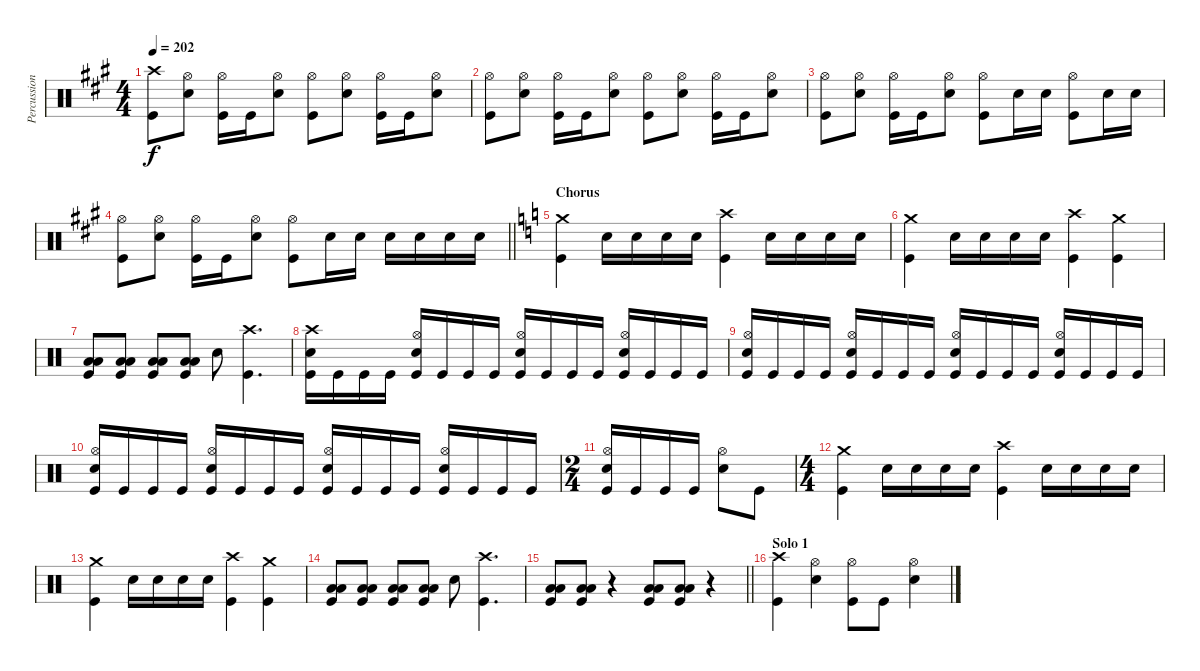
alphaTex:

\track ("Percussion" "Percussion") {instrument percussion}
\staff {score}
\articulation defaults
\ts (4 4)
\tempo 202
\clef neutral
\ks a
("Crash high (hit)" "Kick (hit)").8{dy f} ("Hi-Hat (open)" "Electric Snare (hit)").8 ("Hi-Hat (open)" "Kick (hit)").16 "Kick (hit)".16 ("Hi-Hat (open)" "Electric Snare (hit)").8 ("Hi-Hat (open)" "Kick (hit)").8 ("Hi-Hat (open)" "Electric Snare (hit)").8 ("Hi-Hat (open)" "Kick (hit)").16 "Kick (hit)".16 ("Hi-Hat (open)" "Electric Snare (hit)").8 |
("Hi-Hat (open)" "Kick (hit)").8 ("Hi-Hat (open)" "Electric Snare (hit)").8 ("Hi-Hat (open)" "Kick (hit)").16 "Kick (hit)".16 ("Hi-Hat (open)" "Electric Snare (hit)").8 ("Hi-Hat (open)" "Kick (hit)").8 ("Hi-Hat (open)" "Electric Snare (hit)").8 ("Hi-Hat (open)" "Kick (hit)").16 "Kick (hit)".16 ("Hi-Hat (open)" "Electric Snare (hit)").8 |
("Hi-Hat (open)" "Kick (hit)").8 ("Hi-Hat (open)" "Electric Snare (hit)").8 ("Hi-Hat (open)" "Kick (hit)").16 "Kick (hit)".16 ("Hi-Hat (open)" "Electric Snare (hit)").8 ("Hi-Hat (open)" "Kick (hit)").8 "Electric Snare (hit)".16 "Electric Snare (hit)".16 ("Hi-Hat (open)" "Kick (hit)").8 "Electric Snare (hit)".16 "Electric Snare (hit)".16 |
\barLineRight lightlight
("Hi-Hat (open)" "Kick (hit)").8 ("Hi-Hat (open)" "Electric Snare (hit)").8 ("Hi-Hat (open)" "Kick (hit)").16 "Kick (hit)".16 ("Hi-Hat (open)" "Electric Snare (hit)").8 ("Hi-Hat (open)" "Kick (hit)").8 "Electric Snare (hit)".16 "Electric Snare (hit)".16 "Electric Snare (hit)".16 "Electric Snare (hit)".16 "Electric Snare (hit)".16 "Electric Snare (hit)".16 |
\section ("" "Chorus")
\ks c
("Crash medium (hit)" "Kick (hit)").4 "Electric Snare (hit)".16 "Electric Snare (hit)".16 "Electric Snare (hit)".16 "Electric Snare (hit)".16 ("Crash high (hit)" "Kick (hit)").4 "Electric Snare (hit)".16 "Electric Snare (hit)".16 "Electric Snare (hit)".16 "Electric Snare (hit)".16 |
("Crash medium (hit)" "Kick (hit)").4 "Electric Snare (hit)".16 "Electric Snare (hit)".16 "Electric Snare (hit)".16 "Electric Snare (hit)".16 ("Crash high (hit)" "Kick (hit)").4 ("Crash medium (hit)" "Kick (hit)").4 |
("Low Tom (hit)" "Low Floor Tom (hit)" "Kick (hit)").8 ("Low Tom (hit)" "Low Floor Tom (hit)" "Kick (hit)").8 ("Low Tom (hit)" "Low Floor Tom (hit)" "Kick (hit)").8 ("Low Tom (hit)" "Low Floor Tom (hit)" "Kick (hit)").8 "Electric Snare (hit)".8 ("Crash high (hit)" "Kick (hit)").4{d} |
("Crash high (hit)" "Electric Snare (hit)" "Kick (hit)").16 "Kick (hit)".16 "Kick (hit)".16 "Kick (hit)".16 ("Hi-Hat (open)" "Electric Snare (hit)" "Kick (hit)").16 "Kick (hit)".16 "Kick (hit)".16 "Kick (hit)".16 ("Hi-Hat (open)" "Electric Snare (hit)" "Kick (hit)").16 "Kick (hit)".16 "Kick (hit)".16 "Kick (hit)".16 ("Hi-Hat (open)" "Electric Snare (hit)" "Kick (hit)").16 "Kick (hit)".16 "Kick (hit)".16 "Kick (hit)".16 |
("Hi-Hat (open)" "Electric Snare (hit)" "Kick (hit)").16 "Kick (hit)".16 "Kick (hit)".16 "Kick (hit)".16 ("Hi-Hat (open)" "Electric Snare (hit)" "Kick (hit)").16 "Kick (hit)".16 "Kick (hit)".16 "Kick (hit)".16 ("Hi-Hat (open)" "Electric Snare (hit)" "Kick (hit)").16 "Kick (hit)".16 "Kick (hit)".16 "Kick (hit)".16 ("Hi-Hat (open)" "Electric Snare (hit)" "Kick (hit)").16 "Kick (hit)".16 "Kick (hit)".16 "Kick (hit)".16 |
("Hi-Hat (open)" "Electric Snare (hit)" "Kick (hit)").16 "Kick (hit)".16 "Kick (hit)".16 "Kick (hit)".16 ("Hi-Hat (open)" "Electric Snare (hit)" "Kick (hit)").16 "Kick (hit)".16 "Kick (hit)".16 "Kick (hit)".16 ("Hi-Hat (open)" "Electric Snare (hit)" "Kick (hit)").16 "Kick (hit)".16 "Kick (hit)".16 "Kick (hit)".16 ("Hi-Hat (open)" "Electric Snare (hit)" "Kick (hit)").16 "Kick (hit)".16 "Kick (hit)".16 "Kick (hit)".16 |
\ts (2 4)
("Hi-Hat (open)" "Electric Snare (hit)" "Kick (hit)").16 "Kick (hit)".16 "Kick (hit)".16 "Kick (hit)".16 ("Hi-Hat (open)" "Electric Snare (hit)").8 "Kick (hit)".8 |
\ts (4 4)
("Crash medium (hit)" "Kick (hit)").4 "Electric Snare (hit)".16 "Electric Snare (hit)".16 "Electric Snare (hit)".16 "Electric Snare (hit)".16 ("Crash high (hit)" "Kick (hit)").4 "Electric Snare (hit)".16 "Electric Snare (hit)".16 "Electric Snare (hit)".16 "Electric Snare (hit)".16 |
("Crash medium (hit)" "Kick (hit)").4 "Electric Snare (hit)".16 "Electric Snare (hit)".16 "Electric Snare (hit)".16 "Electric Snare (hit)".16 ("Crash high (hit)" "Kick (hit)").4 ("Crash medium (hit)" "Kick (hit)").4 |
("Low Tom (hit)" "Low Floor Tom (hit)" "Kick (hit)").8 ("Low Tom (hit)" "Low Floor Tom (hit)" "Kick (hit)").8 ("Low Tom (hit)" "Low Floor Tom (hit)" "Kick (hit)").8 ("Low Tom (hit)" "Low Floor Tom (hit)" "Kick (hit)").8 "Electric Snare (hit)".8 ("Crash high (hit)" "Kick (hit)").4{d} |
\barLineRight lightlight
("Low Tom (hit)" "Low Floor Tom (hit)" "Kick (hit)").8 ("Low Tom (hit)" "Low Floor Tom (hit)" "Kick (hit)").8 r.4 ("Low Tom (hit)" "Low Floor Tom (hit)" "Kick (hit)").8 ("Low Tom (hit)" "Low Floor Tom (hit)" "Kick (hit)").8 r.4 |
\section ("" "Solo 1")
("Crash high (hit)" "Kick (hit)").4 ("Hi-Hat (open)" "Electric Snare (hit)").4 ("Hi-Hat (open)" "Kick (hit)").8 "Kick (hit)".8 ("Hi-Hat (open)" "Electric Snare (hit)").4
